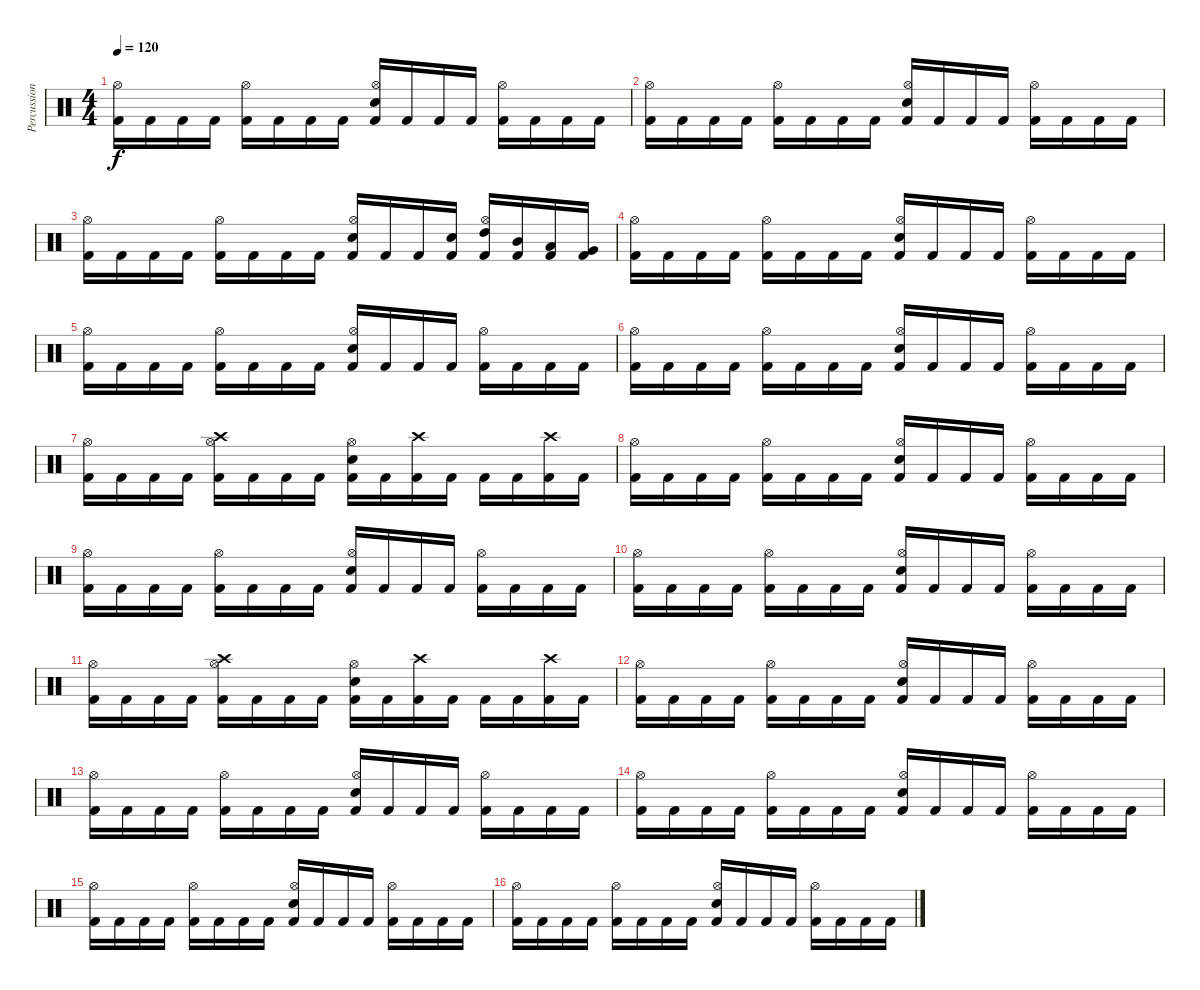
\track ("Percussion" "Percussion") {instrument percussion}
\staff {score}
\articulation defaults
\ts (4 4)
\tempo 120
\clef neutral
\ks c
("Kick (hit) 2" "Hi-Hat (open)").16{dy f} "Kick (hit) 2".16 "Kick (hit) 2".16 "Kick (hit) 2".16 ("Kick (hit) 2" "Hi-Hat (open)").16 "Kick (hit) 2".16 "Kick (hit) 2".16 "Kick (hit) 2".16 ("Kick (hit) 2" "Hi-Hat (open)" "Electric Snare (hit)").16 "Kick (hit) 2".16 "Kick (hit) 2".16 "Kick (hit) 2".16 ("Kick (hit) 2" "Hi-Hat (open)").16 "Kick (hit) 2".16 "Kick (hit) 2".16 "Kick (hit) 2".16 |
("Kick (hit) 2" "Hi-Hat (open)").16 "Kick (hit) 2".16 "Kick (hit) 2".16 "Kick (hit) 2".16 ("Kick (hit) 2" "Hi-Hat (open)").16 "Kick (hit) 2".16 "Kick (hit) 2".16 "Kick (hit) 2".16 ("Kick (hit) 2" "Hi-Hat (open)" "Electric Snare (hit)").16 "Kick (hit) 2".16 "Kick (hit) 2".16 "Kick (hit) 2".16 ("Kick (hit) 2" "Hi-Hat (open)").16 "Kick (hit) 2".16 "Kick (hit) 2".16 "Kick (hit) 2".16 |
("Kick (hit) 2" "Hi-Hat (open)").16 "Kick (hit) 2".16 "Kick (hit) 2".16 "Kick (hit) 2".16 ("Kick (hit) 2" "Hi-Hat (open)").16 "Kick (hit) 2".16 "Kick (hit) 2".16 "Kick (hit) 2".16 ("Kick (hit) 2" "Hi-Hat (open)" "Electric Snare (hit)").16 "Kick (hit) 2".16 "Kick (hit) 2".16 ("Kick (hit) 2" "Electric Snare (hit)").16 ("Kick (hit) 2" "Hi-Hat (open)" "High Tom (hit)").16 ("Kick (hit) 2" "Mid Tom (hit)").16 ("Kick (hit) 2" "Low Tom (hit)").16 ("Kick (hit) 2" "Very Low Tom (hit)").16 |
("Kick (hit) 2" "Hi-Hat (open)").16 "Kick (hit) 2".16 "Kick (hit) 2".16 "Kick (hit) 2".16 ("Kick (hit) 2" "Hi-Hat (open)").16 "Kick (hit) 2".16 "Kick (hit) 2".16 "Kick (hit) 2".16 ("Kick (hit) 2" "Hi-Hat (open)" "Electric Snare (hit)").16 "Kick (hit) 2".16 "Kick (hit) 2".16 "Kick (hit) 2".16 ("Kick (hit) 2" "Hi-Hat (open)").16 "Kick (hit) 2".16 "Kick (hit) 2".16 "Kick (hit) 2".16 |
("Kick (hit) 2" "Hi-Hat (open)").16 "Kick (hit) 2".16 "Kick (hit) 2".16 "Kick (hit) 2".16 ("Kick (hit) 2" "Hi-Hat (open)").16 "Kick (hit) 2".16 "Kick (hit) 2".16 "Kick (hit) 2".16 ("Kick (hit) 2" "Hi-Hat (open)" "Electric Snare (hit)").16 "Kick (hit) 2".16 "Kick (hit) 2".16 "Kick (hit) 2".16 ("Kick (hit) 2" "Hi-Hat (open)").16 "Kick (hit) 2".16 "Kick (hit) 2".16 "Kick (hit) 2".16 |
("Kick (hit) 2" "Hi-Hat (open)").16 "Kick (hit) 2".16 "Kick (hit) 2".16 "Kick (hit) 2".16 ("Kick (hit) 2" "Hi-Hat (open)").16 "Kick (hit) 2".16 "Kick (hit) 2".16 "Kick (hit) 2".16 ("Kick (hit) 2" "Hi-Hat (open)" "Electric Snare (hit)").16 "Kick (hit) 2".16 "Kick (hit) 2".16 "Kick (hit) 2".16 ("Kick (hit) 2" "Hi-Hat (open)").16 "Kick (hit) 2".16 "Kick (hit) 2".16 "Kick (hit) 2".16 |
("Kick (hit) 2" "Hi-Hat (open)").16 "Kick (hit) 2".16 "Kick (hit) 2".16 "Kick (hit) 2".16 ("Kick (hit) 2" "Hi-Hat (open)" "Crash high (hit)").16 "Kick (hit) 2".16 "Kick (hit) 2".16 "Kick (hit) 2".16 ("Kick (hit) 2" "Hi-Hat (open)" "Electric Snare (hit)").16 "Kick (hit) 2".16 ("Kick (hit) 2" "Crash high (hit)").16 "Kick (hit) 2".16 "Kick (hit) 2".16 "Kick (hit) 2".16 ("Kick (hit) 2" "Crash high (hit)").16 "Kick (hit) 2".16 |
("Kick (hit) 2" "Hi-Hat (open)").16 "Kick (hit) 2".16 "Kick (hit) 2".16 "Kick (hit) 2".16 ("Kick (hit) 2" "Hi-Hat (open)").16 "Kick (hit) 2".16 "Kick (hit) 2".16 "Kick (hit) 2".16 ("Kick (hit) 2" "Hi-Hat (open)" "Electric Snare (hit)").16 "Kick (hit) 2".16 "Kick (hit) 2".16 "Kick (hit) 2".16 ("Kick (hit) 2" "Hi-Hat (open)").16 "Kick (hit) 2".16 "Kick (hit) 2".16 "Kick (hit) 2".16 |
("Kick (hit) 2" "Hi-Hat (open)").16 "Kick (hit) 2".16 "Kick (hit) 2".16 "Kick (hit) 2".16 ("Kick (hit) 2" "Hi-Hat (open)").16 "Kick (hit) 2".16 "Kick (hit) 2".16 "Kick (hit) 2".16 ("Kick (hit) 2" "Hi-Hat (open)" "Electric Snare (hit)").16 "Kick (hit) 2".16 "Kick (hit) 2".16 "Kick (hit) 2".16 ("Kick (hit) 2" "Hi-Hat (open)").16 "Kick (hit) 2".16 "Kick (hit) 2".16 "Kick (hit) 2".16 |
("Kick (hit) 2" "Hi-Hat (open)").16 "Kick (hit) 2".16 "Kick (hit) 2".16 "Kick (hit) 2".16 ("Kick (hit) 2" "Hi-Hat (open)").16 "Kick (hit) 2".16 "Kick (hit) 2".16 "Kick (hit) 2".16 ("Kick (hit) 2" "Hi-Hat (open)" "Electric Snare (hit)").16 "Kick (hit) 2".16 "Kick (hit) 2".16 "Kick (hit) 2".16 ("Kick (hit) 2" "Hi-Hat (open)").16 "Kick (hit) 2".16 "Kick (hit) 2".16 "Kick (hit) 2".16 |
("Kick (hit) 2" "Hi-Hat (open)").16 "Kick (hit) 2".16 "Kick (hit) 2".16 "Kick (hit) 2".16 ("Kick (hit) 2" "Hi-Hat (open)" "Crash high (hit)").16 "Kick (hit) 2".16 "Kick (hit) 2".16 "Kick (hit) 2".16 ("Kick (hit) 2" "Hi-Hat (open)" "Electric Snare (hit)").16 "Kick (hit) 2".16 ("Kick (hit) 2" "Crash high (hit)").16 "Kick (hit) 2".16 "Kick (hit) 2".16 "Kick (hit) 2".16 ("Kick (hit) 2" "Crash high (hit)").16 "Kick (hit) 2".16 |
("Kick (hit) 2" "Hi-Hat (open)").16 "Kick (hit) 2".16 "Kick (hit) 2".16 "Kick (hit) 2".16 ("Kick (hit) 2" "Hi-Hat (open)").16 "Kick (hit) 2".16 "Kick (hit) 2".16 "Kick (hit) 2".16 ("Kick (hit) 2" "Hi-Hat (open)" "Electric Snare (hit)").16 "Kick (hit) 2".16 "Kick (hit) 2".16 "Kick (hit) 2".16 ("Kick (hit) 2" "Hi-Hat (open)").16 "Kick (hit) 2".16 "Kick (hit) 2".16 "Kick (hit) 2".16 |
("Kick (hit) 2" "Hi-Hat (open)").16 "Kick (hit) 2".16 "Kick (hit) 2".16 "Kick (hit) 2".16 ("Kick (hit) 2" "Hi-Hat (open)").16 "Kick (hit) 2".16 "Kick (hit) 2".16 "Kick (hit) 2".16 ("Kick (hit) 2" "Hi-Hat (open)" "Electric Snare (hit)").16 "Kick (hit) 2".16 "Kick (hit) 2".16 "Kick (hit) 2".16 ("Kick (hit) 2" "Hi-Hat (open)").16 "Kick (hit) 2".16 "Kick (hit) 2".16 "Kick (hit) 2".16 |
("Kick (hit) 2" "Hi-Hat (open)").16 "Kick (hit) 2".16 "Kick (hit) 2".16 "Kick (hit) 2".16 ("Kick (hit) 2" "Hi-Hat (open)").16 "Kick (hit) 2".16 "Kick (hit) 2".16 "Kick (hit) 2".16 ("Kick (hit) 2" "Hi-Hat (open)" "Electric Snare (hit)").16 "Kick (hit) 2".16 "Kick (hit) 2".16 "Kick (hit) 2".16 ("Kick (hit) 2" "Hi-Hat (open)").16 "Kick (hit) 2".16 "Kick (hit) 2".16 "Kick (hit) 2".16 |
("Kick (hit) 2" "Hi-Hat (open)").16 "Kick (hit) 2".16 "Kick (hit) 2".16 "Kick (hit) 2".16 ("Kick (hit) 2" "Hi-Hat (open)").16 "Kick (hit) 2".16 "Kick (hit) 2".16 "Kick (hit) 2".16 ("Kick (hit) 2" "Hi-Hat (open)" "Electric Snare (hit)").16 "Kick (hit) 2".16 "Kick (hit) 2".16 "Kick (hit) 2".16 ("Kick (hit) 2" "Hi-Hat (open)").16 "Kick (hit) 2".16 "Kick (hit) 2".16 "Kick (hit) 2".16 |
("Kick (hit) 2" "Hi-Hat (open)").16 "Kick (hit) 2".16 "Kick (hit) 2".16 "Kick (hit) 2".16 ("Kick (hit) 2" "Hi-Hat (open)").16 "Kick (hit) 2".16 "Kick (hit) 2".16 "Kick (hit) 2".16 ("Kick (hit) 2" "Hi-Hat (open)" "Electric Snare (hit)").16 "Kick (hit) 2".16 "Kick (hit) 2".16 "Kick (hit) 2".16 ("Kick (hit) 2" "Hi-Hat (open)").16 "Kick (hit) 2".16 "Kick (hit) 2".16 "Kick (hit) 2".16
